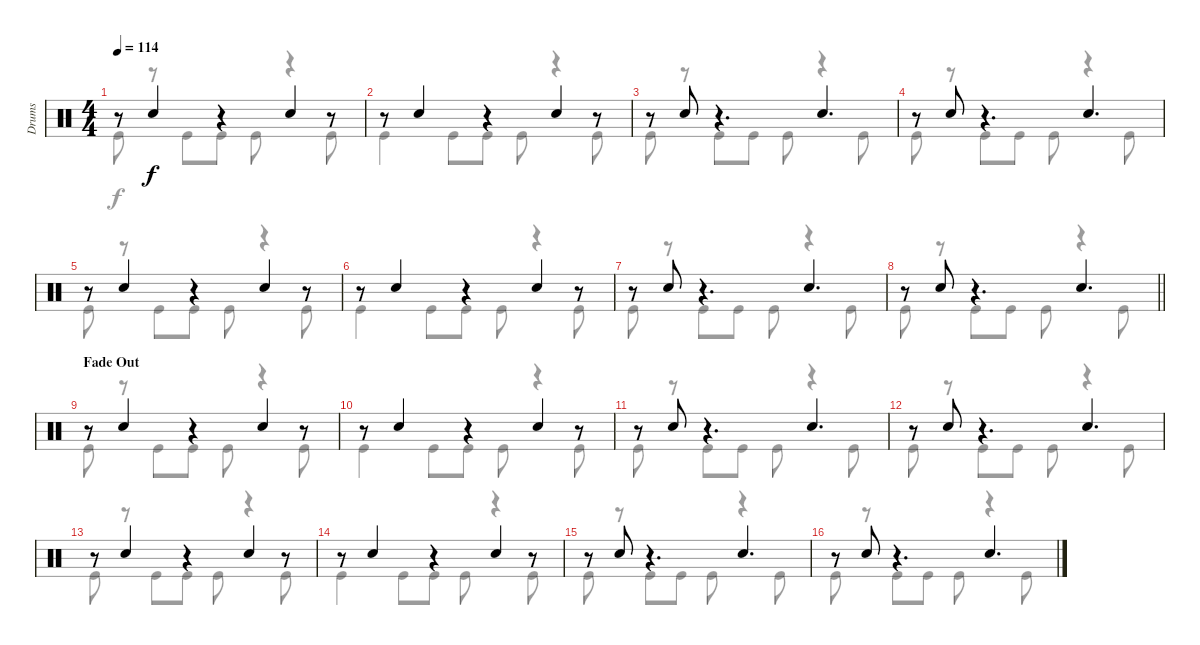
\track ("Drums" "Drums") {instrument percussion}
\staff {score}
\articulation defaults
\voice
\ts (4 4)
\tempo 114
\clef neutral
\ks c
r.8{dy f} "Snare (hit) 2".4 r.4 "Snare (hit) 2".4 r.8 |
r.8 "Snare (hit) 2".4 r.4 "Snare (hit) 2".4 r.8 |
r.8 "Snare (hit) 2".8 r.4{d} "Snare (hit) 2".4{d} |
r.8 "Snare (hit) 2".8 r.4{d} "Snare (hit) 2".4{d} |
r.8 "Snare (hit) 2".4 r.4 "Snare (hit) 2".4 r.8 |
r.8 "Snare (hit) 2".4 r.4 "Snare (hit) 2".4 r.8 |
r.8 "Snare (hit) 2".8 r.4{d} "Snare (hit) 2".4{d} |
\barLineRight lightlight
r.8 "Snare (hit) 2".8 r.4{d} "Snare (hit) 2".4{d} |
\section ("" "Fade Out")
r.8 "Snare (hit) 2".4 r.4 "Snare (hit) 2".4 r.8 |
r.8 "Snare (hit) 2".4 r.4 "Snare (hit) 2".4 r.8 |
r.8 "Snare (hit) 2".8 r.4{d} "Snare (hit) 2".4{d} |
r.8 "Snare (hit) 2".8 r.4{d} "Snare (hit) 2".4{d} |
r.8 "Snare (hit) 2".4 r.4 "Snare (hit) 2".4 r.8 |
r.8 "Snare (hit) 2".4 r.4 "Snare (hit) 2".4 r.8 |
r.8 "Snare (hit) 2".8 r.4{d} "Snare (hit) 2".4{d} |
r.8 "Snare (hit) 2".8 r.4{d} "Snare (hit) 2".4{d}
\voice
\clef neutral
\ottava regular
\simile none
\ks c "Kick (hit)".8{dy f}
r.8 "Kick (hit)".8 "Kick (hit)".8 "Kick (hit)".8 r.4 "Kick (hit)".8 |
"Kick (hit)".4 "Kick (hit)".8 "Kick (hit)".8 "Kick (hit)".8 r.4 "Kick (hit)".8 |
"Kick (hit)".8 r.8 "Kick (hit)".8 "Kick (hit)".8 "Kick (hit)".8 r.4 "Kick (hit)".8 |
"Kick (hit)".8 r.8 "Kick (hit)".8 "Kick (hit)".8 "Kick (hit)".8 r.4 "Kick (hit)".8 |
"Kick (hit)".8 r.8 "Kick (hit)".8 "Kick (hit)".8 "Kick (hit)".8 r.4 "Kick (hit)".8 |
"Kick (hit)".4 "Kick (hit)".8 "Kick (hit)".8 "Kick (hit)".8 r.4 "Kick (hit)".8 |
"Kick (hit)".8 r.8 "Kick (hit)".8 "Kick (hit)".8 "Kick (hit)".8 r.4 "Kick (hit)".8 |
\barLineRight lightlight "Kick (hit)".8
r.8 "Kick (hit)".8 "Kick (hit)".8 "Kick (hit)".8 r.4 "Kick (hit)".8 |
"Kick (hit)".8 r.8 "Kick (hit)".8 "Kick (hit)".8 "Kick (hit)".8 r.4 "Kick (hit)".8 |
"Kick (hit)".4 "Kick (hit)".8 "Kick (hit)".8 "Kick (hit)".8 r.4 "Kick (hit)".8 |
"Kick (hit)".8 r.8 "Kick (hit)".8 "Kick (hit)".8 "Kick (hit)".8 r.4 "Kick (hit)".8 |
"Kick (hit)".8 r.8 "Kick (hit)".8 "Kick (hit)".8 "Kick (hit)".8 r.4 "Kick (hit)".8 |
"Kick (hit)".8 r.8 "Kick (hit)".8 "Kick (hit)".8 "Kick (hit)".8 r.4 "Kick (hit)".8 |
"Kick (hit)".4 "Kick (hit)".8 "Kick (hit)".8 "Kick (hit)".8 r.4 "Kick (hit)".8 |
"Kick (hit)".8 r.8 "Kick (hit)".8 "Kick (hit)".8 "Kick (hit)".8 r.4 "Kick (hit)".8 |
"Kick (hit)".8 r.8 "Kick (hit)".8 "Kick (hit)".8 "Kick (hit)".8 r.4 "Kick (hit)".8
